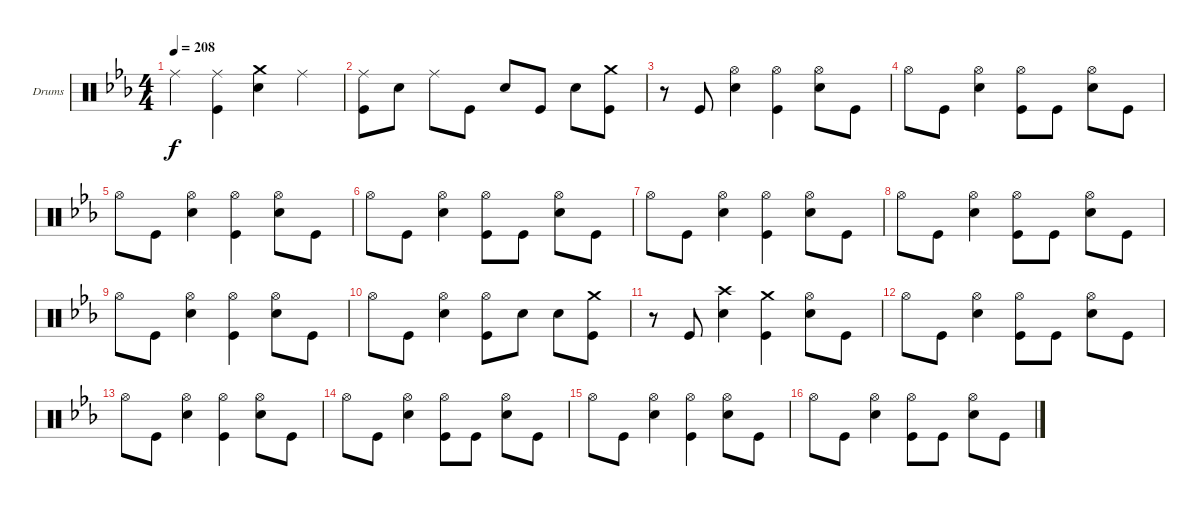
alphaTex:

\defaultSystemsLayout 4
\bracketExtendMode groupsimilarinstruments
\firstSystemTrackNameOrientation horizontal
\otherSystemsTrackNameOrientation horizontal
\track ("Drumkit" "Drums") {instrument percussion}
\staff {score}
\articulation defaults
\ts (4 4)
\tempo 208
\clef neutral
\ks eb "Ride (middle)".4{dy f}
("Ride (middle)" "Kick (hit)").4 ("Crash medium (hit)" "Snare (hit) 2").4 "Ride (middle)".4 |
("Ride (middle)" "Kick (hit)").8 "Snare (hit) 2".8 "Ride (middle)".8 "Kick (hit)".8 "Snare (hit) 2".8 "Kick (hit)".8 "Snare (hit) 2".8 ("Crash medium (hit)" "Kick (hit)").8 |
r.8 "Kick (hit)".8 ("Hi-Hat (open)" "Snare (hit) 2").4 ("Hi-Hat (open)" "Kick (hit)").4 ("Hi-Hat (open)" "Snare (hit) 2").8 "Kick (hit)".8 |
"Hi-Hat (open)".8 "Kick (hit)".8 ("Hi-Hat (open)" "Snare (hit) 2").4 ("Hi-Hat (open)" "Kick (hit)").8 "Kick (hit)".8 ("Hi-Hat (open)" "Snare (hit) 2").8 "Kick (hit)".8 |
"Hi-Hat (open)".8 "Kick (hit)".8 ("Hi-Hat (open)" "Snare (hit) 2").4 ("Hi-Hat (open)" "Kick (hit)").4 ("Hi-Hat (open)" "Snare (hit) 2").8 "Kick (hit)".8 |
"Hi-Hat (open)".8 "Kick (hit)".8 ("Hi-Hat (open)" "Snare (hit) 2").4 ("Hi-Hat (open)" "Kick (hit)").8 "Kick (hit)".8 ("Hi-Hat (open)" "Snare (hit) 2").8 "Kick (hit)".8 |
"Hi-Hat (open)".8 "Kick (hit)".8 ("Hi-Hat (open)" "Snare (hit) 2").4 ("Hi-Hat (open)" "Kick (hit)").4 ("Hi-Hat (open)" "Snare (hit) 2").8 "Kick (hit)".8 |
"Hi-Hat (open)".8 "Kick (hit)".8 ("Hi-Hat (open)" "Snare (hit) 2").4 ("Hi-Hat (open)" "Kick (hit)").8 "Kick (hit)".8 ("Hi-Hat (open)" "Snare (hit) 2").8 "Kick (hit)".8 |
"Hi-Hat (open)".8 "Kick (hit)".8 ("Hi-Hat (open)" "Snare (hit) 2").4 ("Hi-Hat (open)" "Kick (hit)").4 ("Hi-Hat (open)" "Snare (hit) 2").8 "Kick (hit)".8 |
"Hi-Hat (open)".8 "Kick (hit)".8 ("Hi-Hat (open)" "Snare (hit) 2").4 ("Hi-Hat (open)" "Kick (hit)").8 "Snare (hit) 2".8 "Snare (hit) 2".8 ("Crash medium (hit)" "Kick (hit)").8 |
r.8 "Kick (hit)".8 ("Crash high (hit)" "Snare (hit) 2").4 ("Crash medium (hit)" "Kick (hit)").4 ("Hi-Hat (open)" "Snare (hit) 2").8 "Kick (hit)".8 |
"Hi-Hat (open)".8 "Kick (hit)".8 ("Hi-Hat (open)" "Snare (hit) 2").4 ("Hi-Hat (open)" "Kick (hit)").8 "Kick (hit)".8 ("Hi-Hat (open)" "Snare (hit) 2").8 "Kick (hit)".8 |
"Hi-Hat (open)".8 "Kick (hit)".8 ("Hi-Hat (open)" "Snare (hit) 2").4 ("Hi-Hat (open)" "Kick (hit)").4 ("Hi-Hat (open)" "Snare (hit) 2").8 "Kick (hit)".8 |
"Hi-Hat (open)".8 "Kick (hit)".8 ("Hi-Hat (open)" "Snare (hit) 2").4 ("Hi-Hat (open)" "Kick (hit)").8 "Kick (hit)".8 ("Hi-Hat (open)" "Snare (hit) 2").8 "Kick (hit)".8 |
"Hi-Hat (open)".8 "Kick (hit)".8 ("Hi-Hat (open)" "Snare (hit) 2").4 ("Hi-Hat (open)" "Kick (hit)").4 ("Hi-Hat (open)" "Snare (hit) 2").8 "Kick (hit)".8 |
"Hi-Hat (open)".8 "Kick (hit)".8 ("Hi-Hat (open)" "Snare (hit) 2").4 ("Hi-Hat (open)" "Kick (hit)").8 "Kick (hit)".8 ("Hi-Hat (open)" "Snare (hit) 2").8 "Kick (hit)".8
